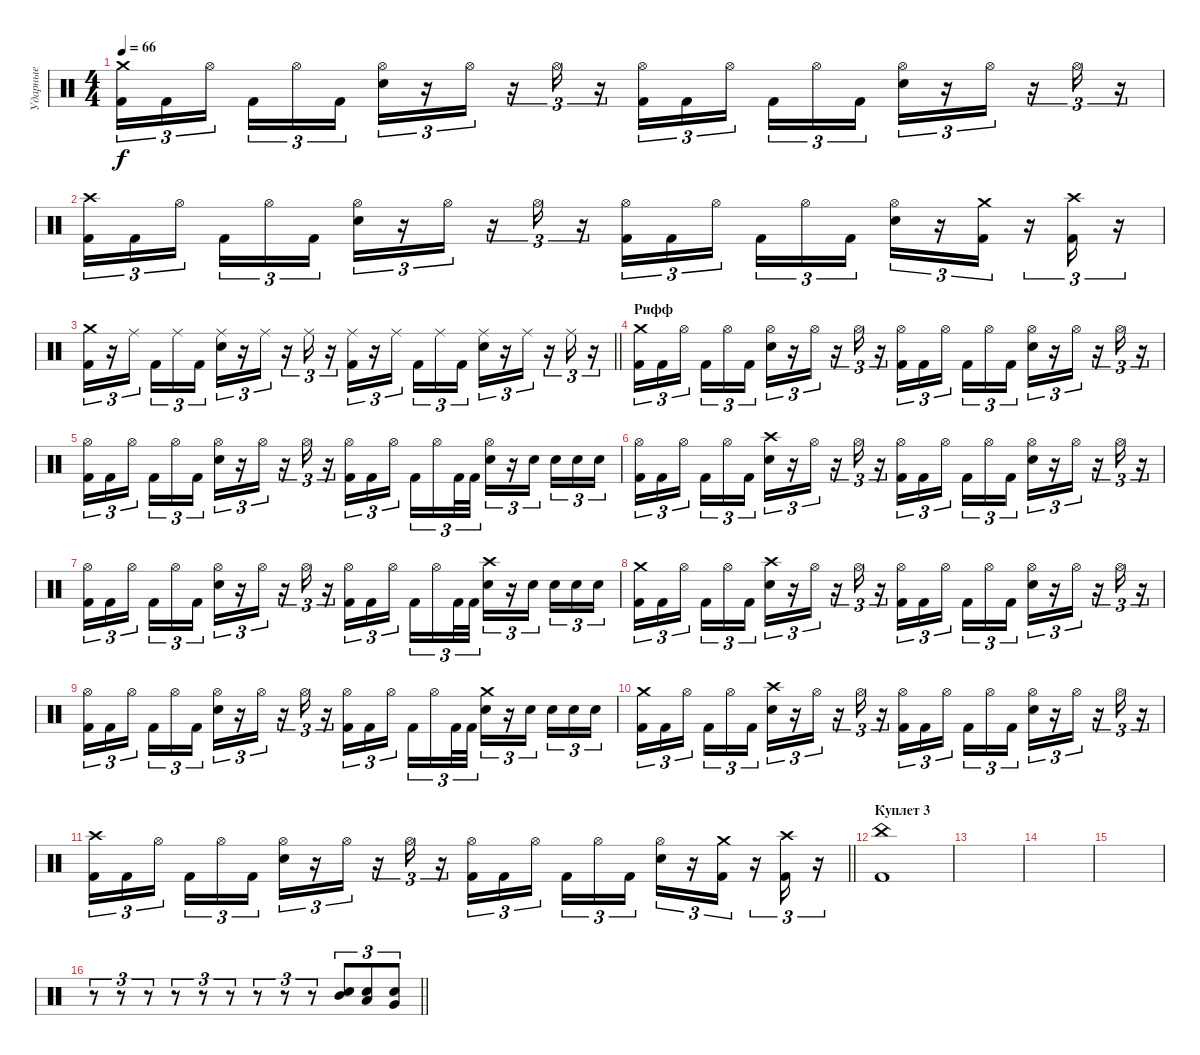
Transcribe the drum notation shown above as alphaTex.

\track ("Ударные" "Ударные") {instrument percussion}
\staff {score}
\articulation defaults
\ts (4 4)
\tempo 66
\clef neutral
\ks c
("Crash medium (hit)" "Kick (hit) 2").16{tu (3 2) dy f} "Kick (hit) 2".16{tu (3 2)} "Hi-Hat (open)".16{tu (3 2)} "Kick (hit) 2".16{tu (3 2)} "Hi-Hat (open)".16{tu (3 2)} "Kick (hit) 2".16{tu (3 2)} ("Hi-Hat (open)" "Snare (hit) 2").16{tu (3 2)} r.16{tu (3 2)} "Hi-Hat (open)".16{tu (3 2)} r.16{tu (3 2)} "Hi-Hat (open)".16{tu (3 2)} r.16{tu (3 2)} ("Hi-Hat (open)" "Kick (hit) 2").16{tu (3 2)} "Kick (hit) 2".16{tu (3 2)} "Hi-Hat (open)".16{tu (3 2)} "Kick (hit) 2".16{tu (3 2)} "Hi-Hat (open)".16{tu (3 2)} "Kick (hit) 2".16{tu (3 2)} ("Hi-Hat (open)" "Snare (hit) 2").16{tu (3 2)} r.16{tu (3 2)} "Hi-Hat (open)".16{tu (3 2)} r.16{tu (3 2)} "Hi-Hat (open)".16{tu (3 2)} r.16{tu (3 2)} |
("Crash high (hit)" "Kick (hit) 2").16{tu (3 2)} "Kick (hit) 2".16{tu (3 2)} "Hi-Hat (open)".16{tu (3 2)} "Kick (hit) 2".16{tu (3 2)} "Hi-Hat (open)".16{tu (3 2)} "Kick (hit) 2".16{tu (3 2)} ("Hi-Hat (open)" "Snare (hit) 2").16{tu (3 2)} r.16{tu (3 2)} "Hi-Hat (open)".16{tu (3 2)} r.16{tu (3 2)} "Hi-Hat (open)".16{tu (3 2)} r.16{tu (3 2)} ("Hi-Hat (open)" "Kick (hit) 2").16{tu (3 2)} "Kick (hit) 2".16{tu (3 2)} "Hi-Hat (open)".16{tu (3 2)} "Kick (hit) 2".16{tu (3 2)} "Hi-Hat (open)".16{tu (3 2)} "Kick (hit) 2".16{tu (3 2)} ("Hi-Hat (open)" "Snare (hit) 2").16{tu (3 2)} r.16{tu (3 2)} ("Crash medium (hit)" "Kick (hit) 2").16{tu (3 2)} r.16{tu (3 2)} ("Crash high (hit)" "Kick (hit) 2").16{tu (3 2)} r.16{tu (3 2)} |
\barLineRight lightlight
("Crash medium (hit)" "Kick (hit) 2").16{tu (3 2)} r.16{tu (3 2)} "Ride (middle)".16{tu (3 2)} "Kick (hit) 2".16{tu (3 2)} "Ride (middle)".16{tu (3 2)} "Kick (hit) 2".16{tu (3 2)} ("Ride (middle)" "Snare (hit) 2").16{tu (3 2)} r.16{tu (3 2)} "Ride (middle)".16{tu (3 2)} r.16{tu (3 2)} "Ride (middle)".16{tu (3 2)} r.16{tu (3 2)} ("Ride (middle)" "Kick (hit) 2").16{tu (3 2)} r.16{tu (3 2)} "Ride (middle)".16{tu (3 2)} "Kick (hit) 2".16{tu (3 2)} "Ride (middle)".16{tu (3 2)} "Kick (hit) 2".16{tu (3 2)} ("Ride (middle)" "Snare (hit) 2").16{tu (3 2)} r.16{tu (3 2)} "Ride (middle)".16{tu (3 2)} r.16{tu (3 2)} "Ride (middle)".16{tu (3 2)} r.16{tu (3 2)} |
\section ("" "Рифф")
("Crash medium (hit)" "Kick (hit) 2").16{tu (3 2)} "Kick (hit) 2".16{tu (3 2)} "Hi-Hat (open)".16{tu (3 2)} "Kick (hit) 2".16{tu (3 2)} "Hi-Hat (open)".16{tu (3 2)} "Kick (hit) 2".16{tu (3 2)} ("Hi-Hat (open)" "Snare (hit) 2").16{tu (3 2)} r.16{tu (3 2)} "Hi-Hat (open)".16{tu (3 2)} r.16{tu (3 2)} "Hi-Hat (open)".16{tu (3 2)} r.16{tu (3 2)} ("Hi-Hat (open)" "Kick (hit) 2").16{tu (3 2)} "Kick (hit) 2".16{tu (3 2)} "Hi-Hat (open)".16{tu (3 2)} "Kick (hit) 2".16{tu (3 2)} "Hi-Hat (open)".16{tu (3 2)} "Kick (hit) 2".16{tu (3 2)} ("Hi-Hat (open)" "Snare (hit) 2").16{tu (3 2)} r.16{tu (3 2)} "Hi-Hat (open)".16{tu (3 2)} r.16{tu (3 2)} "Hi-Hat (open)".16{tu (3 2)} r.16{tu (3 2)} |
("Hi-Hat (open)" "Kick (hit) 2").16{tu (3 2)} "Kick (hit) 2".16{tu (3 2)} "Hi-Hat (open)".16{tu (3 2)} "Kick (hit) 2".16{tu (3 2)} "Hi-Hat (open)".16{tu (3 2)} "Kick (hit) 2".16{tu (3 2)} ("Hi-Hat (open)" "Snare (hit) 2").16{tu (3 2)} r.16{tu (3 2)} "Hi-Hat (open)".16{tu (3 2)} r.16{tu (3 2)} "Hi-Hat (open)".16{tu (3 2)} r.16{tu (3 2)} ("Hi-Hat (open)" "Kick (hit) 2").16{tu (3 2)} "Kick (hit) 2".16{tu (3 2)} "Hi-Hat (open)".16{tu (3 2)} "Kick (hit) 2".16{tu (3 2)} "Hi-Hat (open)".16{tu (3 2)} "Kick (hit) 2".32{tu (3 2)} "Kick (hit) 2".32{tu (3 2)} ("Hi-Hat (open)" "Snare (hit) 2").16{tu (3 2)} r.16{tu (3 2)} "Snare (hit) 2".16{tu (3 2)} "Snare (hit) 2".16{tu (3 2)} "Snare (hit) 2".16{tu (3 2)} "Snare (hit) 2".16{tu (3 2)} |
("Hi-Hat (open)" "Kick (hit) 2").16{tu (3 2)} "Kick (hit) 2".16{tu (3 2)} "Hi-Hat (open)".16{tu (3 2)} "Kick (hit) 2".16{tu (3 2)} "Hi-Hat (open)".16{tu (3 2)} "Kick (hit) 2".16{tu (3 2)} ("Crash high (hit)" "Snare (hit) 2").16{tu (3 2)} r.16{tu (3 2)} "Hi-Hat (open)".16{tu (3 2)} r.16{tu (3 2)} "Hi-Hat (open)".16{tu (3 2)} r.16{tu (3 2)} ("Hi-Hat (open)" "Kick (hit) 2").16{tu (3 2)} "Kick (hit) 2".16{tu (3 2)} "Hi-Hat (open)".16{tu (3 2)} "Kick (hit) 2".16{tu (3 2)} "Hi-Hat (open)".16{tu (3 2)} "Kick (hit) 2".16{tu (3 2)} ("Hi-Hat (open)" "Snare (hit) 2").16{tu (3 2)} r.16{tu (3 2)} "Hi-Hat (open)".16{tu (3 2)} r.16{tu (3 2)} "Hi-Hat (open)".16{tu (3 2)} r.16{tu (3 2)} |
("Hi-Hat (open)" "Kick (hit) 2").16{tu (3 2)} "Kick (hit) 2".16{tu (3 2)} "Hi-Hat (open)".16{tu (3 2)} "Kick (hit) 2".16{tu (3 2)} "Hi-Hat (open)".16{tu (3 2)} "Kick (hit) 2".16{tu (3 2)} ("Hi-Hat (open)" "Snare (hit) 2").16{tu (3 2)} r.16{tu (3 2)} "Hi-Hat (open)".16{tu (3 2)} r.16{tu (3 2)} "Hi-Hat (open)".16{tu (3 2)} r.16{tu (3 2)} ("Hi-Hat (open)" "Kick (hit) 2").16{tu (3 2)} "Kick (hit) 2".16{tu (3 2)} "Hi-Hat (open)".16{tu (3 2)} "Kick (hit) 2".16{tu (3 2)} "Hi-Hat (open)".16{tu (3 2)} "Kick (hit) 2".32{tu (3 2)} "Kick (hit) 2".32{tu (3 2)} ("Crash high (hit)" "Snare (hit) 2").16{tu (3 2)} r.16{tu (3 2)} "Snare (hit) 2".16{tu (3 2)} "Snare (hit) 2".16{tu (3 2)} "Snare (hit) 2".16{tu (3 2)} "Snare (hit) 2".16{tu (3 2)} |
("Crash medium (hit)" "Kick (hit) 2").16{tu (3 2)} "Kick (hit) 2".16{tu (3 2)} "Hi-Hat (open)".16{tu (3 2)} "Kick (hit) 2".16{tu (3 2)} "Hi-Hat (open)".16{tu (3 2)} "Kick (hit) 2".16{tu (3 2)} ("Crash high (hit)" "Snare (hit) 2").16{tu (3 2)} r.16{tu (3 2)} "Hi-Hat (open)".16{tu (3 2)} r.16{tu (3 2)} "Hi-Hat (open)".16{tu (3 2)} r.16{tu (3 2)} ("Hi-Hat (open)" "Kick (hit) 2").16{tu (3 2)} "Kick (hit) 2".16{tu (3 2)} "Hi-Hat (open)".16{tu (3 2)} "Kick (hit) 2".16{tu (3 2)} "Hi-Hat (open)".16{tu (3 2)} "Kick (hit) 2".16{tu (3 2)} ("Hi-Hat (open)" "Snare (hit) 2").16{tu (3 2)} r.16{tu (3 2)} "Hi-Hat (open)".16{tu (3 2)} r.16{tu (3 2)} "Hi-Hat (open)".16{tu (3 2)} r.16{tu (3 2)} |
("Hi-Hat (open)" "Kick (hit) 2").16{tu (3 2)} "Kick (hit) 2".16{tu (3 2)} "Hi-Hat (open)".16{tu (3 2)} "Kick (hit) 2".16{tu (3 2)} "Hi-Hat (open)".16{tu (3 2)} "Kick (hit) 2".16{tu (3 2)} ("Hi-Hat (open)" "Snare (hit) 2").16{tu (3 2)} r.16{tu (3 2)} "Hi-Hat (open)".16{tu (3 2)} r.16{tu (3 2)} "Hi-Hat (open)".16{tu (3 2)} r.16{tu (3 2)} ("Hi-Hat (open)" "Kick (hit) 2").16{tu (3 2)} "Kick (hit) 2".16{tu (3 2)} "Hi-Hat (open)".16{tu (3 2)} "Kick (hit) 2".16{tu (3 2)} "Hi-Hat (open)".16{tu (3 2)} "Kick (hit) 2".32{tu (3 2)} "Kick (hit) 2".32{tu (3 2)} ("Crash medium (hit)" "Snare (hit) 2").16{tu (3 2)} r.16{tu (3 2)} "Snare (hit) 2".16{tu (3 2)} "Snare (hit) 2".16{tu (3 2)} "Snare (hit) 2".16{tu (3 2)} "Snare (hit) 2".16{tu (3 2)} |
("Crash medium (hit)" "Kick (hit) 2").16{tu (3 2)} "Kick (hit) 2".16{tu (3 2)} "Hi-Hat (open)".16{tu (3 2)} "Kick (hit) 2".16{tu (3 2)} "Hi-Hat (open)".16{tu (3 2)} "Kick (hit) 2".16{tu (3 2)} ("Crash high (hit)" "Snare (hit) 2").16{tu (3 2)} r.16{tu (3 2)} "Hi-Hat (open)".16{tu (3 2)} r.16{tu (3 2)} "Hi-Hat (open)".16{tu (3 2)} r.16{tu (3 2)} ("Hi-Hat (open)" "Kick (hit) 2").16{tu (3 2)} "Kick (hit) 2".16{tu (3 2)} "Hi-Hat (open)".16{tu (3 2)} "Kick (hit) 2".16{tu (3 2)} "Hi-Hat (open)".16{tu (3 2)} "Kick (hit) 2".16{tu (3 2)} ("Hi-Hat (open)" "Snare (hit) 2").16{tu (3 2)} r.16{tu (3 2)} "Hi-Hat (open)".16{tu (3 2)} r.16{tu (3 2)} "Hi-Hat (open)".16{tu (3 2)} r.16{tu (3 2)} |
\barLineRight lightlight
("Crash high (hit)" "Kick (hit) 2").16{tu (3 2)} "Kick (hit) 2".16{tu (3 2)} "Hi-Hat (open)".16{tu (3 2)} "Kick (hit) 2".16{tu (3 2)} "Hi-Hat (open)".16{tu (3 2)} "Kick (hit) 2".16{tu (3 2)} ("Hi-Hat (open)" "Snare (hit) 2").16{tu (3 2)} r.16{tu (3 2)} "Hi-Hat (open)".16{tu (3 2)} r.16{tu (3 2)} "Hi-Hat (open)".16{tu (3 2)} r.16{tu (3 2)} ("Hi-Hat (open)" "Kick (hit) 2").16{tu (3 2)} "Kick (hit) 2".16{tu (3 2)} "Hi-Hat (open)".16{tu (3 2)} "Kick (hit) 2".16{tu (3 2)} "Hi-Hat (open)".16{tu (3 2)} "Kick (hit) 2".16{tu (3 2)} ("Hi-Hat (open)" "Snare (hit) 2").16{tu (3 2)} r.16{tu (3 2)} ("Crash medium (hit)" "Kick (hit) 2").16{tu (3 2)} r.16{tu (3 2)} ("Crash high (hit)" "Kick (hit) 2").16{tu (3 2)} r.16{tu (3 2)} |
\section ("" "Куплет 3")
("China (hit)" "Kick (hit) 2").1 |
|
|
|
\barLineRight lightlight
r.8{tu (3 2)} r.8{tu (3 2)} r.8{tu (3 2)} r.8{tu (3 2)} r.8{tu (3 2)} r.8{tu (3 2)} r.8{tu (3 2)} r.8{tu (3 2)} r.8{tu (3 2)} ("Mid Tom (hit)" "Snare (hit) 2").8{tu (3 2)} ("Low Tom (hit)" "Snare (hit) 2").8{tu (3 2)} ("Very Low Tom (hit)" "Snare (hit) 2").8{tu (3 2)}
